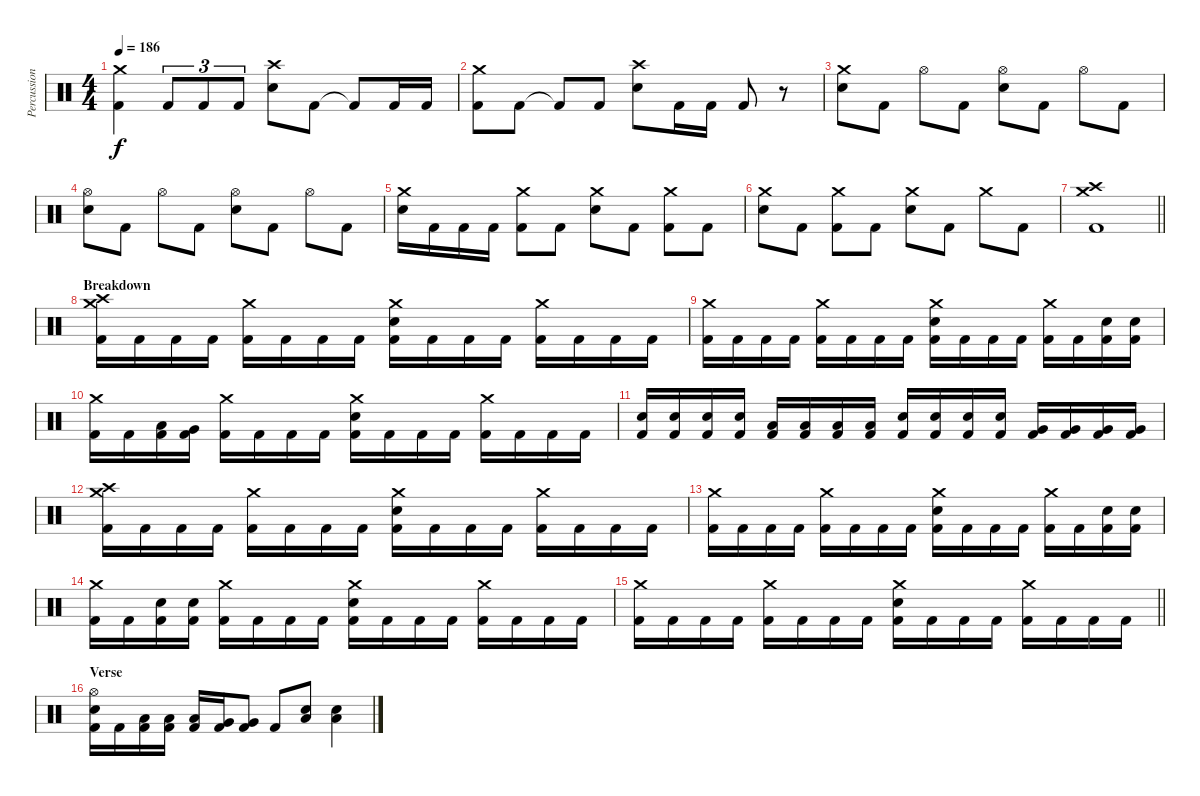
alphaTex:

\track ("Percussion" "Percussion") {instrument percussion}
\staff {score}
\articulation defaults
\ts (4 4)
\tempo 186
\clef neutral
\ks c
("Crash medium (hit)" "Kick (hit) 2").4{dy f} "Kick (hit) 2".8{tu (3 2)} "Kick (hit) 2".8{tu (3 2)} "Kick (hit) 2".8{tu (3 2)} ("Crash high (hit)" "Electric Snare (hit)").8 "Kick (hit) 2".8 "Kick (hit) 2"{t}.8 "Kick (hit) 2".16 "Kick (hit) 2".16 |
("Crash medium (hit)" "Kick (hit) 2").8 "Kick (hit) 2".8 "Kick (hit) 2"{t}.8 "Kick (hit) 2".8 ("Crash high (hit)" "Electric Snare (hit)").8 "Kick (hit) 2".16 "Kick (hit) 2".16 "Kick (hit) 2".8 r.8 |
("Crash medium (hit)" "Electric Snare (hit)").8 "Kick (hit) 2".8 "Hi-Hat (open)".8 "Kick (hit) 2".8 ("Hi-Hat (open)" "Electric Snare (hit)").8 "Kick (hit) 2".8 "Hi-Hat (open)".8 "Kick (hit) 2".8 |
("Hi-Hat (open)" "Electric Snare (hit)").8 "Kick (hit) 2".8 "Hi-Hat (open)".8 "Kick (hit) 2".8 ("Hi-Hat (open)" "Electric Snare (hit)").8 "Kick (hit) 2".8 "Hi-Hat (open)".8 "Kick (hit) 2".8 |
("Crash medium (hit)" "Electric Snare (hit)").16 "Kick (hit) 2".16 "Kick (hit) 2".16 "Kick (hit) 2".16 ("Crash medium (hit)" "Kick (hit) 2").8 "Kick (hit) 2".8 ("Crash medium (hit)" "Electric Snare (hit)").8 "Kick (hit) 2".8 ("Crash medium (hit)" "Kick (hit) 2").8 "Kick (hit) 2".8 |
("Crash medium (hit)" "Electric Snare (hit)").8 "Kick (hit) 2".8 ("Crash medium (hit)" "Kick (hit) 2").8 "Kick (hit) 2".8 ("Crash medium (hit)" "Electric Snare (hit)").8 "Kick (hit) 2".8 "Crash medium (hit)".8 "Kick (hit) 2".8 |
\barLineRight lightlight
("Crash medium (hit)" "Crash high (hit)" "Kick (hit) 2").1 |
\section ("" "Breakdown")
("Crash medium (hit)" "Crash high (hit)" "Kick (hit) 2").16 "Kick (hit) 2".16 "Kick (hit) 2".16 "Kick (hit) 2".16 ("Crash medium (hit)" "Kick (hit) 2").16 "Kick (hit) 2".16 "Kick (hit) 2".16 "Kick (hit) 2".16 ("Crash medium (hit)" "Electric Snare (hit)" "Kick (hit) 2").16 "Kick (hit) 2".16 "Kick (hit) 2".16 "Kick (hit) 2".16 ("Crash medium (hit)" "Kick (hit) 2").16 "Kick (hit) 2".16 "Kick (hit) 2".16 "Kick (hit) 2".16 |
("Crash medium (hit)" "Kick (hit) 2").16 "Kick (hit) 2".16 "Kick (hit) 2".16 "Kick (hit) 2".16 ("Crash medium (hit)" "Kick (hit) 2").16 "Kick (hit) 2".16 "Kick (hit) 2".16 "Kick (hit) 2".16 ("Crash medium (hit)" "Electric Snare (hit)" "Kick (hit) 2").16 "Kick (hit) 2".16 "Kick (hit) 2".16 "Kick (hit) 2".16 ("Crash medium (hit)" "Kick (hit) 2").16 "Kick (hit) 2".16 ("Electric Snare (hit)" "Kick (hit) 2").16 ("Electric Snare (hit)" "Kick (hit) 2").16 |
("Crash medium (hit)" "Kick (hit) 2").16 "Kick (hit) 2".16 ("Low Tom (hit)" "Kick (hit) 2").16 ("Very Low Tom (hit)" "Kick (hit) 2").16 ("Crash medium (hit)" "Kick (hit) 2").16 "Kick (hit) 2".16 "Kick (hit) 2".16 "Kick (hit) 2".16 ("Crash medium (hit)" "Electric Snare (hit)" "Kick (hit) 2").16 "Kick (hit) 2".16 "Kick (hit) 2".16 "Kick (hit) 2".16 ("Crash medium (hit)" "Kick (hit) 2").16 "Kick (hit) 2".16 "Kick (hit) 2".16 "Kick (hit) 2".16 |
("Electric Snare (hit)" "Kick (hit) 2").16 ("Electric Snare (hit)" "Kick (hit) 2").16 ("Electric Snare (hit)" "Kick (hit) 2").16 ("Electric Snare (hit)" "Kick (hit) 2").16 ("Low Tom (hit)" "Kick (hit) 2").16 ("Low Tom (hit)" "Kick (hit) 2").16 ("Low Tom (hit)" "Kick (hit) 2").16 ("Low Tom (hit)" "Kick (hit) 2").16 ("Electric Snare (hit)" "Kick (hit) 2").16 ("Electric Snare (hit)" "Kick (hit) 2").16 ("Electric Snare (hit)" "Kick (hit) 2").16 ("Electric Snare (hit)" "Kick (hit) 2").16 ("Very Low Tom (hit)" "Kick (hit) 2").16 ("Very Low Tom (hit)" "Kick (hit) 2").16 ("Very Low Tom (hit)" "Kick (hit) 2").16 ("Very Low Tom (hit)" "Kick (hit) 2").16 |
("Crash medium (hit)" "Crash high (hit)" "Kick (hit) 2").16 "Kick (hit) 2".16 "Kick (hit) 2".16 "Kick (hit) 2".16 ("Crash medium (hit)" "Kick (hit) 2").16 "Kick (hit) 2".16 "Kick (hit) 2".16 "Kick (hit) 2".16 ("Crash medium (hit)" "Electric Snare (hit)" "Kick (hit) 2").16 "Kick (hit) 2".16 "Kick (hit) 2".16 "Kick (hit) 2".16 ("Crash medium (hit)" "Kick (hit) 2").16 "Kick (hit) 2".16 "Kick (hit) 2".16 "Kick (hit) 2".16 |
("Crash medium (hit)" "Kick (hit) 2").16 "Kick (hit) 2".16 "Kick (hit) 2".16 "Kick (hit) 2".16 ("Crash medium (hit)" "Kick (hit) 2").16 "Kick (hit) 2".16 "Kick (hit) 2".16 "Kick (hit) 2".16 ("Crash medium (hit)" "Electric Snare (hit)" "Kick (hit) 2").16 "Kick (hit) 2".16 "Kick (hit) 2".16 "Kick (hit) 2".16 ("Crash medium (hit)" "Kick (hit) 2").16 "Kick (hit) 2".16 ("Electric Snare (hit)" "Kick (hit) 2").16 ("Electric Snare (hit)" "Kick (hit) 2").16 |
("Crash medium (hit)" "Kick (hit) 2").16 "Kick (hit) 2".16 ("Electric Snare (hit)" "Kick (hit) 2").16 ("Electric Snare (hit)" "Kick (hit) 2").16 ("Crash medium (hit)" "Kick (hit) 2").16 "Kick (hit) 2".16 "Kick (hit) 2".16 "Kick (hit) 2".16 ("Crash medium (hit)" "Electric Snare (hit)" "Kick (hit) 2").16 "Kick (hit) 2".16 "Kick (hit) 2".16 "Kick (hit) 2".16 ("Crash medium (hit)" "Kick (hit) 2").16 "Kick (hit) 2".16 "Kick (hit) 2".16 "Kick (hit) 2".16 |
\barLineRight lightlight
("Crash medium (hit)" "Kick (hit) 2").16 "Kick (hit) 2".16 "Kick (hit) 2".16 "Kick (hit) 2".16 ("Crash medium (hit)" "Kick (hit) 2").16 "Kick (hit) 2".16 "Kick (hit) 2".16 "Kick (hit) 2".16 ("Crash medium (hit)" "Electric Snare (hit)" "Kick (hit) 2").16 "Kick (hit) 2".16 "Kick (hit) 2".16 "Kick (hit) 2".16 ("Crash medium (hit)" "Kick (hit) 2").16 "Kick (hit) 2".16 "Kick (hit) 2".16 "Kick (hit) 2".16 |
\section ("" "Verse")
("Hi-Hat (open)" "Electric Snare (hit)" "Kick (hit) 2").16 "Kick (hit) 2".16 ("Low Tom (hit)" "Kick (hit) 2").16 ("Low Tom (hit)" "Kick (hit) 2").16 ("Low Tom (hit)" "Kick (hit) 2").16 ("Very Low Tom (hit)" "Kick (hit) 2").16 ("Very Low Tom (hit)" "Kick (hit) 2").8 "Kick (hit) 2".8 ("Electric Snare (hit)" "Low Floor Tom (hit)").8 ("Electric Snare (hit)" "Low Floor Tom (hit)").4
